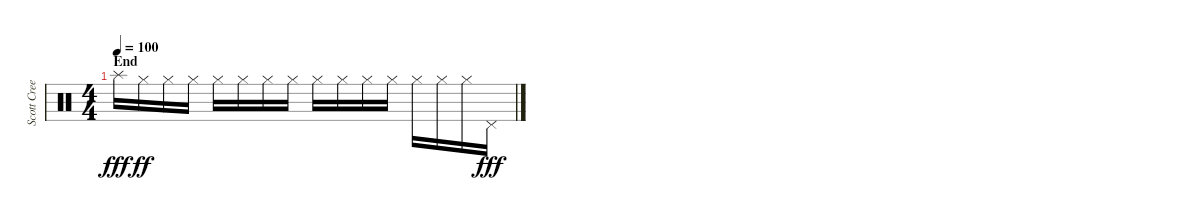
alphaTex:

\track ("Scott Creekmore" "Scott Cree") {instrument percussion}
\staff {score}
\articulation defaults
\ts (4 4)
\section ("" "End")
\tempo 100
\clef neutral
\ks c "Splash (hit)".16{dy fff} "Hi-Hat (closed)".16{dy ff} "Hi-Hat (closed)".16 "Hi-Hat (closed)".16 "Hi-Hat (closed)".16 "Hi-Hat (closed)".16 "Hi-Hat (closed)".16 "Hi-Hat (closed)".16 "Hi-Hat (closed)".16 "Hi-Hat (closed)".16 "Hi-Hat (closed)".16 "Hi-Hat (closed)".16 "Hi-Hat (closed)".16 "Hi-Hat (closed)".16 "Hi-Hat (closed)".16 "Pedal Hi-Hat (hit)".16{dy fff}
